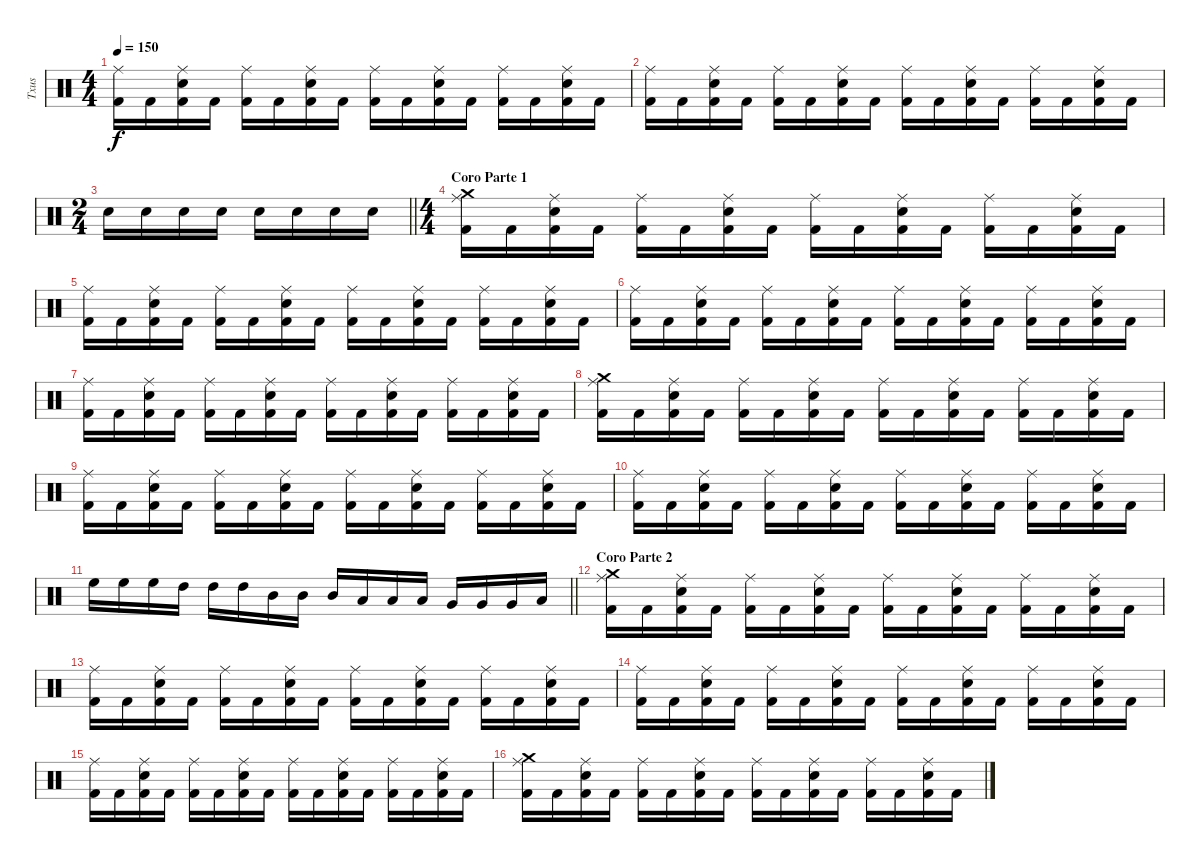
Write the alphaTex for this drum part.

\track ("Txus" "Txus") {instrument percussion}
\staff {score}
\articulation defaults
\ts (4 4)
\tempo 150
\clef neutral
\ks c
("Ride (middle)" "Kick (hit) 2").16{dy f} "Kick (hit) 2".16 ("Ride (middle)" "Electric Snare (hit)" "Kick (hit) 2").16 "Kick (hit) 2".16 ("Ride (middle)" "Kick (hit) 2").16 "Kick (hit) 2".16 ("Ride (middle)" "Electric Snare (hit)" "Kick (hit) 2").16 "Kick (hit) 2".16 ("Ride (middle)" "Kick (hit) 2").16 "Kick (hit) 2".16 ("Ride (middle)" "Electric Snare (hit)" "Kick (hit) 2").16 "Kick (hit) 2".16 ("Ride (middle)" "Kick (hit) 2").16 "Kick (hit) 2".16 ("Ride (middle)" "Electric Snare (hit)" "Kick (hit) 2").16 "Kick (hit) 2".16 |
("Ride (middle)" "Kick (hit) 2").16 "Kick (hit) 2".16 ("Ride (middle)" "Electric Snare (hit)" "Kick (hit) 2").16 "Kick (hit) 2".16 ("Ride (middle)" "Kick (hit) 2").16 "Kick (hit) 2".16 ("Ride (middle)" "Electric Snare (hit)" "Kick (hit) 2").16 "Kick (hit) 2".16 ("Ride (middle)" "Kick (hit) 2").16 "Kick (hit) 2".16 ("Ride (middle)" "Electric Snare (hit)" "Kick (hit) 2").16 "Kick (hit) 2".16 ("Ride (middle)" "Kick (hit) 2").16 "Kick (hit) 2".16 ("Ride (middle)" "Electric Snare (hit)" "Kick (hit) 2").16 "Kick (hit) 2".16 |
\ts (2 4)
\barLineRight lightlight "Electric Snare (hit)".16 "Electric Snare (hit)".16 "Electric Snare (hit)".16 "Electric Snare (hit)".16 "Electric Snare (hit)".16 "Electric Snare (hit)".16 "Electric Snare (hit)".16 "Electric Snare (hit)".16
|
\ts (4 4)
\section ("" "Coro Parte 1")
("Crash medium (hit)" "Ride (middle)" "Kick (hit) 2").16 "Kick (hit) 2".16 ("Ride (middle)" "Electric Snare (hit)" "Kick (hit) 2").16 "Kick (hit) 2".16 ("Ride (middle)" "Kick (hit) 2").16 "Kick (hit) 2".16 ("Ride (middle)" "Electric Snare (hit)" "Kick (hit) 2").16 "Kick (hit) 2".16 ("Ride (middle)" "Kick (hit) 2").16 "Kick (hit) 2".16 ("Ride (middle)" "Electric Snare (hit)" "Kick (hit) 2").16 "Kick (hit) 2".16 ("Ride (middle)" "Kick (hit) 2").16 "Kick (hit) 2".16 ("Ride (middle)" "Electric Snare (hit)" "Kick (hit) 2").16 "Kick (hit) 2".16 |
("Ride (middle)" "Kick (hit) 2").16 "Kick (hit) 2".16 ("Ride (middle)" "Electric Snare (hit)" "Kick (hit) 2").16 "Kick (hit) 2".16 ("Ride (middle)" "Kick (hit) 2").16 "Kick (hit) 2".16 ("Ride (middle)" "Electric Snare (hit)" "Kick (hit) 2").16 "Kick (hit) 2".16 ("Ride (middle)" "Kick (hit) 2").16 "Kick (hit) 2".16 ("Ride (middle)" "Electric Snare (hit)" "Kick (hit) 2").16 "Kick (hit) 2".16 ("Ride (middle)" "Kick (hit) 2").16 "Kick (hit) 2".16 ("Ride (middle)" "Electric Snare (hit)" "Kick (hit) 2").16 "Kick (hit) 2".16 |
("Ride (middle)" "Kick (hit) 2").16 "Kick (hit) 2".16 ("Ride (middle)" "Electric Snare (hit)" "Kick (hit) 2").16 "Kick (hit) 2".16 ("Ride (middle)" "Kick (hit) 2").16 "Kick (hit) 2".16 ("Ride (middle)" "Electric Snare (hit)" "Kick (hit) 2").16 "Kick (hit) 2".16 ("Ride (middle)" "Kick (hit) 2").16 "Kick (hit) 2".16 ("Ride (middle)" "Electric Snare (hit)" "Kick (hit) 2").16 "Kick (hit) 2".16 ("Ride (middle)" "Kick (hit) 2").16 "Kick (hit) 2".16 ("Ride (middle)" "Electric Snare (hit)" "Kick (hit) 2").16 "Kick (hit) 2".16 |
("Ride (middle)" "Kick (hit) 2").16 "Kick (hit) 2".16 ("Ride (middle)" "Electric Snare (hit)" "Kick (hit) 2").16 "Kick (hit) 2".16 ("Ride (middle)" "Kick (hit) 2").16 "Kick (hit) 2".16 ("Ride (middle)" "Electric Snare (hit)" "Kick (hit) 2").16 "Kick (hit) 2".16 ("Ride (middle)" "Kick (hit) 2").16 "Kick (hit) 2".16 ("Ride (middle)" "Electric Snare (hit)" "Kick (hit) 2").16 "Kick (hit) 2".16 ("Ride (middle)" "Kick (hit) 2").16 "Kick (hit) 2".16 ("Ride (middle)" "Electric Snare (hit)" "Kick (hit) 2").16 "Kick (hit) 2".16 |
("Crash medium (hit)" "Ride (middle)" "Kick (hit) 2").16 "Kick (hit) 2".16 ("Ride (middle)" "Electric Snare (hit)" "Kick (hit) 2").16 "Kick (hit) 2".16 ("Ride (middle)" "Kick (hit) 2").16 "Kick (hit) 2".16 ("Ride (middle)" "Electric Snare (hit)" "Kick (hit) 2").16 "Kick (hit) 2".16 ("Ride (middle)" "Kick (hit) 2").16 "Kick (hit) 2".16 ("Ride (middle)" "Electric Snare (hit)" "Kick (hit) 2").16 "Kick (hit) 2".16 ("Ride (middle)" "Kick (hit) 2").16 "Kick (hit) 2".16 ("Ride (middle)" "Electric Snare (hit)" "Kick (hit) 2").16 "Kick (hit) 2".16 |
("Ride (middle)" "Kick (hit) 2").16 "Kick (hit) 2".16 ("Ride (middle)" "Electric Snare (hit)" "Kick (hit) 2").16 "Kick (hit) 2".16 ("Ride (middle)" "Kick (hit) 2").16 "Kick (hit) 2".16 ("Ride (middle)" "Electric Snare (hit)" "Kick (hit) 2").16 "Kick (hit) 2".16 ("Ride (middle)" "Kick (hit) 2").16 "Kick (hit) 2".16 ("Ride (middle)" "Electric Snare (hit)" "Kick (hit) 2").16 "Kick (hit) 2".16 ("Ride (middle)" "Kick (hit) 2").16 "Kick (hit) 2".16 ("Ride (middle)" "Electric Snare (hit)" "Kick (hit) 2").16 "Kick (hit) 2".16 |
("Ride (middle)" "Kick (hit) 2").16 "Kick (hit) 2".16 ("Ride (middle)" "Electric Snare (hit)" "Kick (hit) 2").16 "Kick (hit) 2".16 ("Ride (middle)" "Kick (hit) 2").16 "Kick (hit) 2".16 ("Ride (middle)" "Electric Snare (hit)" "Kick (hit) 2").16 "Kick (hit) 2".16 ("Ride (middle)" "Kick (hit) 2").16 "Kick (hit) 2".16 ("Ride (middle)" "Electric Snare (hit)" "Kick (hit) 2").16 "Kick (hit) 2".16 ("Ride (middle)" "Kick (hit) 2").16 "Kick (hit) 2".16 ("Ride (middle)" "Electric Snare (hit)" "Kick (hit) 2").16 "Kick (hit) 2".16 |
\barLineRight lightlight "High Floor Tom (hit)".16 "High Floor Tom (hit)".16 "High Floor Tom (hit)".16 "High Tom (hit)".16 "High Tom (hit)".16 "High Tom (hit)".16 "Mid Tom (hit)".16 "Mid Tom (hit)".16 "Mid Tom (hit)".16 "Low Tom (hit)".16 "Low Tom (hit)".16 "Low Tom (hit)".16 "Very Low Tom (hit)".16 "Very Low Tom (hit)".16 "Very Low Tom (hit)".16 "Low Floor Tom (hit)".16
|
\section ("" "Coro Parte 2")
("Crash medium (hit)" "Ride (middle)" "Kick (hit) 2").16 "Kick (hit) 2".16 ("Ride (middle)" "Electric Snare (hit)" "Kick (hit) 2").16 "Kick (hit) 2".16 ("Ride (middle)" "Kick (hit) 2").16 "Kick (hit) 2".16 ("Ride (middle)" "Electric Snare (hit)" "Kick (hit) 2").16 "Kick (hit) 2".16 ("Ride (middle)" "Kick (hit) 2").16 "Kick (hit) 2".16 ("Ride (middle)" "Electric Snare (hit)" "Kick (hit) 2").16 "Kick (hit) 2".16 ("Ride (middle)" "Kick (hit) 2").16 "Kick (hit) 2".16 ("Ride (middle)" "Electric Snare (hit)" "Kick (hit) 2").16 "Kick (hit) 2".16 |
("Ride (middle)" "Kick (hit) 2").16 "Kick (hit) 2".16 ("Ride (middle)" "Electric Snare (hit)" "Kick (hit) 2").16 "Kick (hit) 2".16 ("Ride (middle)" "Kick (hit) 2").16 "Kick (hit) 2".16 ("Ride (middle)" "Electric Snare (hit)" "Kick (hit) 2").16 "Kick (hit) 2".16 ("Ride (middle)" "Kick (hit) 2").16 "Kick (hit) 2".16 ("Ride (middle)" "Electric Snare (hit)" "Kick (hit) 2").16 "Kick (hit) 2".16 ("Ride (middle)" "Kick (hit) 2").16 "Kick (hit) 2".16 ("Ride (middle)" "Electric Snare (hit)" "Kick (hit) 2").16 "Kick (hit) 2".16 |
("Ride (middle)" "Kick (hit) 2").16 "Kick (hit) 2".16 ("Ride (middle)" "Electric Snare (hit)" "Kick (hit) 2").16 "Kick (hit) 2".16 ("Ride (middle)" "Kick (hit) 2").16 "Kick (hit) 2".16 ("Ride (middle)" "Electric Snare (hit)" "Kick (hit) 2").16 "Kick (hit) 2".16 ("Ride (middle)" "Kick (hit) 2").16 "Kick (hit) 2".16 ("Ride (middle)" "Electric Snare (hit)" "Kick (hit) 2").16 "Kick (hit) 2".16 ("Ride (middle)" "Kick (hit) 2").16 "Kick (hit) 2".16 ("Ride (middle)" "Electric Snare (hit)" "Kick (hit) 2").16 "Kick (hit) 2".16 |
("Ride (middle)" "Kick (hit) 2").16 "Kick (hit) 2".16 ("Ride (middle)" "Electric Snare (hit)" "Kick (hit) 2").16 "Kick (hit) 2".16 ("Ride (middle)" "Kick (hit) 2").16 "Kick (hit) 2".16 ("Ride (middle)" "Electric Snare (hit)" "Kick (hit) 2").16 "Kick (hit) 2".16 ("Ride (middle)" "Kick (hit) 2").16 "Kick (hit) 2".16 ("Ride (middle)" "Electric Snare (hit)" "Kick (hit) 2").16 "Kick (hit) 2".16 ("Ride (middle)" "Kick (hit) 2").16 "Kick (hit) 2".16 ("Ride (middle)" "Electric Snare (hit)" "Kick (hit) 2").16 "Kick (hit) 2".16 |
("Crash medium (hit)" "Ride (middle)" "Kick (hit) 2").16 "Kick (hit) 2".16 ("Ride (middle)" "Electric Snare (hit)" "Kick (hit) 2").16 "Kick (hit) 2".16 ("Ride (middle)" "Kick (hit) 2").16 "Kick (hit) 2".16 ("Ride (middle)" "Electric Snare (hit)" "Kick (hit) 2").16 "Kick (hit) 2".16 ("Ride (middle)" "Kick (hit) 2").16 "Kick (hit) 2".16 ("Ride (middle)" "Electric Snare (hit)" "Kick (hit) 2").16 "Kick (hit) 2".16 ("Ride (middle)" "Kick (hit) 2").16 "Kick (hit) 2".16 ("Ride (middle)" "Electric Snare (hit)" "Kick (hit) 2").16 "Kick (hit) 2".16
